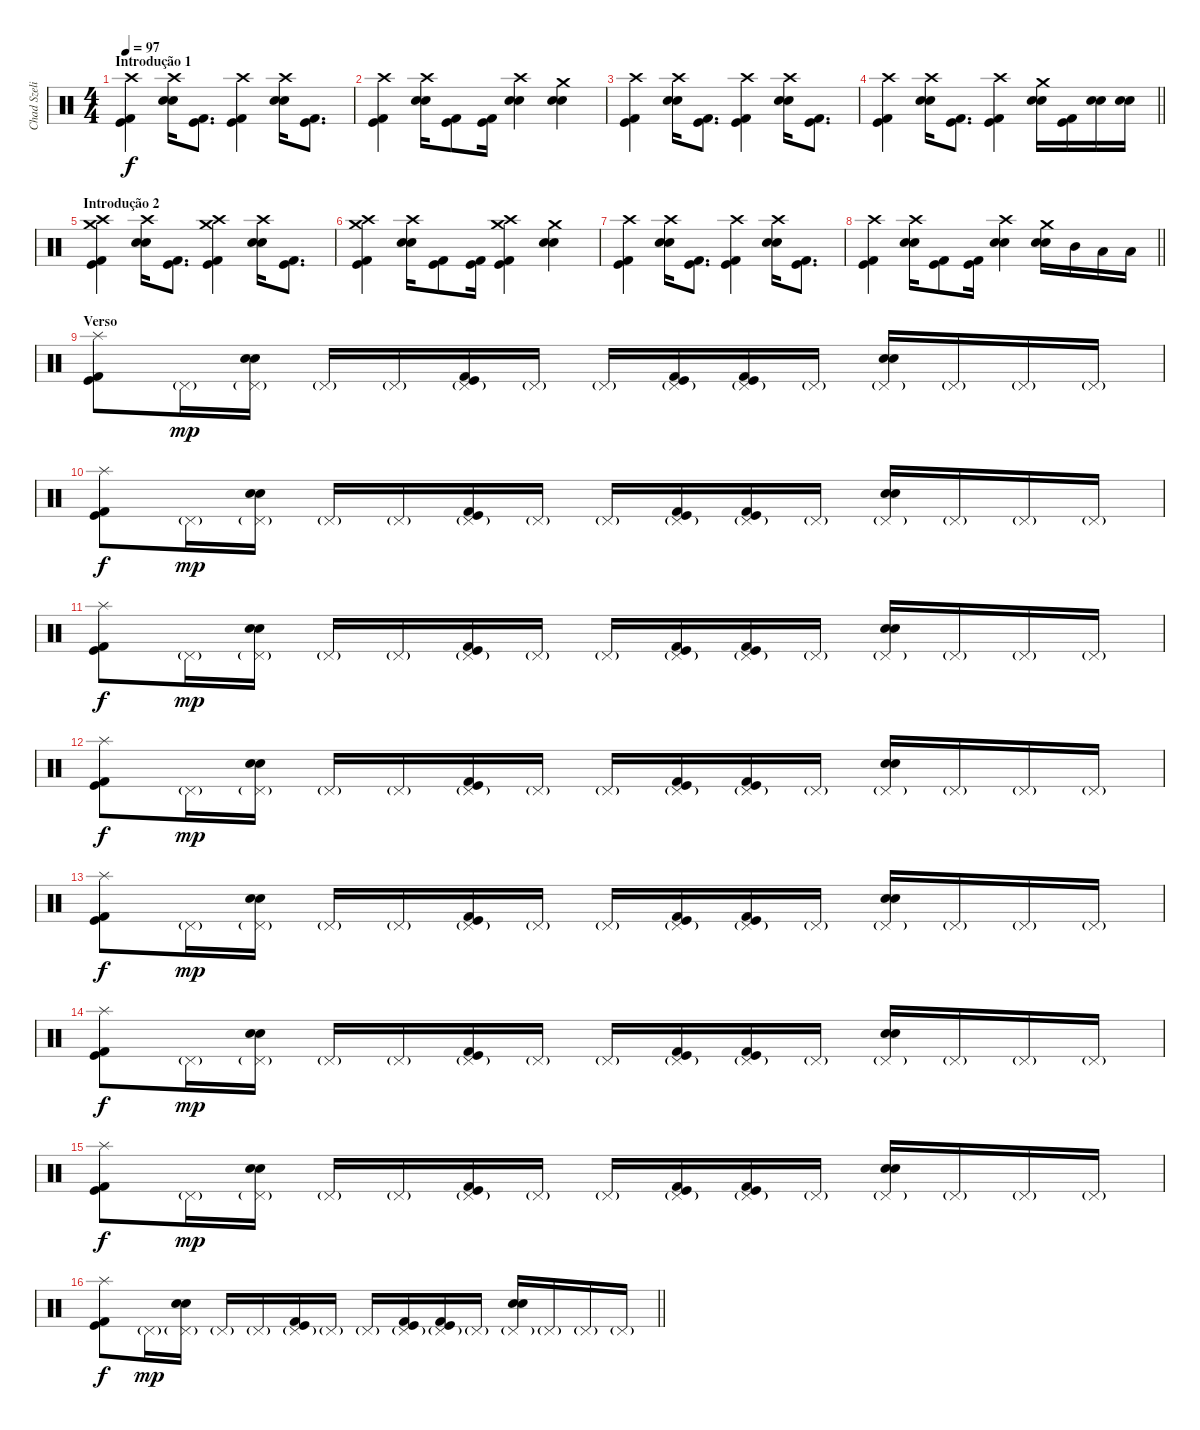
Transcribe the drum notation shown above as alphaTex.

\track ("Chad Szeliga" "Chad Szeli") {instrument percussion}
\staff {score}
\articulation defaults
\ts (4 4)
\section ("" "Introdução 1")
\tempo 97
\clef neutral
\ks c
("Crash high (hit)" "Kick (hit) 2" "Kick (hit)").4{dy f} ("Crash high (hit)" "Snare (hit) 2" "Snare (hit) 2").16 ("Kick (hit) 2" "Kick (hit)").8{d} ("Crash high (hit)" "Kick (hit) 2" "Kick (hit)").4 ("Crash high (hit)" "Snare (hit) 2" "Snare (hit) 2").16 ("Kick (hit) 2" "Kick (hit)").8{d} |
("Crash high (hit)" "Kick (hit) 2" "Kick (hit)").4 ("Crash high (hit)" "Snare (hit) 2" "Snare (hit) 2").16 ("Kick (hit) 2" "Kick (hit)").8 ("Kick (hit) 2" "Kick (hit)").16 ("Crash high (hit)" "Snare (hit) 2" "Snare (hit) 2").4 ("Crash medium (hit)" "Snare (hit) 2" "Snare (hit) 2").4 |
("Crash high (hit)" "Kick (hit) 2" "Kick (hit)").4 ("Crash high (hit)" "Snare (hit) 2" "Snare (hit) 2").16 ("Kick (hit) 2" "Kick (hit)").8{d} ("Crash high (hit)" "Kick (hit) 2" "Kick (hit)").4 ("Crash high (hit)" "Snare (hit) 2" "Snare (hit) 2").16 ("Kick (hit) 2" "Kick (hit)").8{d} |
\barLineRight lightlight
("Crash high (hit)" "Kick (hit) 2" "Kick (hit)").4 ("Crash high (hit)" "Snare (hit) 2" "Snare (hit) 2").16 ("Kick (hit) 2" "Kick (hit)").8{d} ("Crash high (hit)" "Kick (hit) 2" "Kick (hit)").4 ("Crash medium (hit)" "Snare (hit) 2" "Snare (hit) 2").16 ("Kick (hit) 2" "Kick (hit)").16 ("Snare (hit) 2" "Snare (hit) 2").16 ("Snare (hit) 2" "Snare (hit) 2").16 |
\section ("" "Introdução 2")
("Crash high (hit)" "Kick (hit) 2" "Kick (hit)" "Crash medium (hit)").4 ("Crash high (hit)" "Snare (hit) 2" "Snare (hit) 2").16 ("Kick (hit) 2" "Kick (hit)").8{d} ("Crash high (hit)" "Kick (hit) 2" "Kick (hit)" "Crash medium (hit)").4 ("Crash high (hit)" "Snare (hit) 2" "Snare (hit) 2").16 ("Kick (hit) 2" "Kick (hit)").8{d} |
("Crash high (hit)" "Kick (hit) 2" "Kick (hit)" "Crash medium (hit)").4 ("Crash high (hit)" "Snare (hit) 2" "Snare (hit) 2").16 ("Kick (hit) 2" "Kick (hit)").8 ("Kick (hit) 2" "Kick (hit)").16 ("Crash high (hit)" "Kick (hit) 2" "Kick (hit)" "Crash medium (hit)").4 ("Crash medium (hit)" "Snare (hit) 2" "Snare (hit) 2").4 |
("Crash high (hit)" "Kick (hit) 2" "Kick (hit)").4 ("Crash high (hit)" "Snare (hit) 2" "Snare (hit) 2").16 ("Kick (hit) 2" "Kick (hit)").8{d} ("Crash high (hit)" "Kick (hit) 2" "Kick (hit)").4 ("Crash high (hit)" "Snare (hit) 2" "Snare (hit) 2").16 ("Kick (hit) 2" "Kick (hit)").8{d} |
\barLineRight lightlight
("Crash high (hit)" "Kick (hit) 2" "Kick (hit)").4 ("Crash high (hit)" "Snare (hit) 2" "Snare (hit) 2").16 ("Kick (hit) 2" "Kick (hit)").8 ("Kick (hit) 2" "Kick (hit)").16 ("Crash high (hit)" "Snare (hit) 2" "Snare (hit) 2").4 ("Crash medium (hit)" "Snare (hit) 2" "Snare (hit) 2").16 "Mid Tom (hit)".16 "Low Tom (hit)".16 "Low Tom (hit)".16 |
\section ("" "Verso")
("Splash (hit)" "Kick (hit) 2" "Kick (hit)").8 "Pedal Hi-Hat (hit)"{g}.16{dy mp} ("Snare (hit) 2" "Snare (hit) 2" "Pedal Hi-Hat (hit)"{g}).16 "Pedal Hi-Hat (hit)"{g}.16 "Pedal Hi-Hat (hit)"{g}.16 ("Kick (hit) 2" "Kick (hit)" "Pedal Hi-Hat (hit)"{g}).16 "Pedal Hi-Hat (hit)"{g}.16 "Pedal Hi-Hat (hit)"{g}.16 ("Kick (hit) 2" "Kick (hit)" "Pedal Hi-Hat (hit)"{g}).16 ("Kick (hit) 2" "Kick (hit)" "Pedal Hi-Hat (hit)"{g}).16 "Pedal Hi-Hat (hit)"{g}.16 ("Snare (hit) 2" "Snare (hit) 2" "Pedal Hi-Hat (hit)"{g}).16 "Pedal Hi-Hat (hit)"{g}.16 "Pedal Hi-Hat (hit)"{g}.16 "Pedal Hi-Hat (hit)"{g}.16 |
("Splash (hit)" "Kick (hit) 2" "Kick (hit)").8{dy f} "Pedal Hi-Hat (hit)"{g}.16{dy mp} ("Snare (hit) 2" "Snare (hit) 2" "Pedal Hi-Hat (hit)"{g}).16 "Pedal Hi-Hat (hit)"{g}.16 "Pedal Hi-Hat (hit)"{g}.16 ("Kick (hit) 2" "Kick (hit)" "Pedal Hi-Hat (hit)"{g}).16 "Pedal Hi-Hat (hit)"{g}.16 "Pedal Hi-Hat (hit)"{g}.16 ("Kick (hit) 2" "Kick (hit)" "Pedal Hi-Hat (hit)"{g}).16 ("Kick (hit) 2" "Kick (hit)" "Pedal Hi-Hat (hit)"{g}).16 "Pedal Hi-Hat (hit)"{g}.16 ("Snare (hit) 2" "Snare (hit) 2" "Pedal Hi-Hat (hit)"{g}).16 "Pedal Hi-Hat (hit)"{g}.16 "Pedal Hi-Hat (hit)"{g}.16 "Pedal Hi-Hat (hit)"{g}.16 |
("Splash (hit)" "Kick (hit) 2" "Kick (hit)").8{dy f} "Pedal Hi-Hat (hit)"{g}.16{dy mp} ("Snare (hit) 2" "Snare (hit) 2" "Pedal Hi-Hat (hit)"{g}).16 "Pedal Hi-Hat (hit)"{g}.16 "Pedal Hi-Hat (hit)"{g}.16 ("Kick (hit) 2" "Kick (hit)" "Pedal Hi-Hat (hit)"{g}).16 "Pedal Hi-Hat (hit)"{g}.16 "Pedal Hi-Hat (hit)"{g}.16 ("Kick (hit) 2" "Kick (hit)" "Pedal Hi-Hat (hit)"{g}).16 ("Kick (hit) 2" "Kick (hit)" "Pedal Hi-Hat (hit)"{g}).16 "Pedal Hi-Hat (hit)"{g}.16 ("Snare (hit) 2" "Snare (hit) 2" "Pedal Hi-Hat (hit)"{g}).16 "Pedal Hi-Hat (hit)"{g}.16 "Pedal Hi-Hat (hit)"{g}.16 "Pedal Hi-Hat (hit)"{g}.16 |
("Splash (hit)" "Kick (hit) 2" "Kick (hit)").8{dy f} "Pedal Hi-Hat (hit)"{g}.16{dy mp} ("Snare (hit) 2" "Snare (hit) 2" "Pedal Hi-Hat (hit)"{g}).16 "Pedal Hi-Hat (hit)"{g}.16 "Pedal Hi-Hat (hit)"{g}.16 ("Kick (hit) 2" "Kick (hit)" "Pedal Hi-Hat (hit)"{g}).16 "Pedal Hi-Hat (hit)"{g}.16 "Pedal Hi-Hat (hit)"{g}.16 ("Kick (hit) 2" "Kick (hit)" "Pedal Hi-Hat (hit)"{g}).16 ("Kick (hit) 2" "Kick (hit)" "Pedal Hi-Hat (hit)"{g}).16 "Pedal Hi-Hat (hit)"{g}.16 ("Snare (hit) 2" "Snare (hit) 2" "Pedal Hi-Hat (hit)"{g}).16 "Pedal Hi-Hat (hit)"{g}.16 "Pedal Hi-Hat (hit)"{g}.16 "Pedal Hi-Hat (hit)"{g}.16 |
("Splash (hit)" "Kick (hit) 2" "Kick (hit)").8{dy f} "Pedal Hi-Hat (hit)"{g}.16{dy mp} ("Snare (hit) 2" "Snare (hit) 2" "Pedal Hi-Hat (hit)"{g}).16 "Pedal Hi-Hat (hit)"{g}.16 "Pedal Hi-Hat (hit)"{g}.16 ("Kick (hit) 2" "Kick (hit)" "Pedal Hi-Hat (hit)"{g}).16 "Pedal Hi-Hat (hit)"{g}.16 "Pedal Hi-Hat (hit)"{g}.16 ("Kick (hit) 2" "Kick (hit)" "Pedal Hi-Hat (hit)"{g}).16 ("Kick (hit) 2" "Kick (hit)" "Pedal Hi-Hat (hit)"{g}).16 "Pedal Hi-Hat (hit)"{g}.16 ("Snare (hit) 2" "Snare (hit) 2" "Pedal Hi-Hat (hit)"{g}).16 "Pedal Hi-Hat (hit)"{g}.16 "Pedal Hi-Hat (hit)"{g}.16 "Pedal Hi-Hat (hit)"{g}.16 |
("Splash (hit)" "Kick (hit) 2" "Kick (hit)").8{dy f} "Pedal Hi-Hat (hit)"{g}.16{dy mp} ("Snare (hit) 2" "Snare (hit) 2" "Pedal Hi-Hat (hit)"{g}).16 "Pedal Hi-Hat (hit)"{g}.16 "Pedal Hi-Hat (hit)"{g}.16 ("Kick (hit) 2" "Kick (hit)" "Pedal Hi-Hat (hit)"{g}).16 "Pedal Hi-Hat (hit)"{g}.16 "Pedal Hi-Hat (hit)"{g}.16 ("Kick (hit) 2" "Kick (hit)" "Pedal Hi-Hat (hit)"{g}).16 ("Kick (hit) 2" "Kick (hit)" "Pedal Hi-Hat (hit)"{g}).16 "Pedal Hi-Hat (hit)"{g}.16 ("Snare (hit) 2" "Snare (hit) 2" "Pedal Hi-Hat (hit)"{g}).16 "Pedal Hi-Hat (hit)"{g}.16 "Pedal Hi-Hat (hit)"{g}.16 "Pedal Hi-Hat (hit)"{g}.16 |
("Splash (hit)" "Kick (hit) 2" "Kick (hit)").8{dy f} "Pedal Hi-Hat (hit)"{g}.16{dy mp} ("Snare (hit) 2" "Snare (hit) 2" "Pedal Hi-Hat (hit)"{g}).16 "Pedal Hi-Hat (hit)"{g}.16 "Pedal Hi-Hat (hit)"{g}.16 ("Kick (hit) 2" "Kick (hit)" "Pedal Hi-Hat (hit)"{g}).16 "Pedal Hi-Hat (hit)"{g}.16 "Pedal Hi-Hat (hit)"{g}.16 ("Kick (hit) 2" "Kick (hit)" "Pedal Hi-Hat (hit)"{g}).16 ("Kick (hit) 2" "Kick (hit)" "Pedal Hi-Hat (hit)"{g}).16 "Pedal Hi-Hat (hit)"{g}.16 ("Snare (hit) 2" "Snare (hit) 2" "Pedal Hi-Hat (hit)"{g}).16 "Pedal Hi-Hat (hit)"{g}.16 "Pedal Hi-Hat (hit)"{g}.16 "Pedal Hi-Hat (hit)"{g}.16 |
\barLineRight lightlight
("Splash (hit)" "Kick (hit) 2" "Kick (hit)").8{dy f} "Pedal Hi-Hat (hit)"{g}.16{dy mp} ("Snare (hit) 2" "Snare (hit) 2" "Pedal Hi-Hat (hit)"{g}).16 "Pedal Hi-Hat (hit)"{g}.16 "Pedal Hi-Hat (hit)"{g}.16 ("Kick (hit) 2" "Kick (hit)" "Pedal Hi-Hat (hit)"{g}).16 "Pedal Hi-Hat (hit)"{g}.16 "Pedal Hi-Hat (hit)"{g}.16 ("Kick (hit) 2" "Kick (hit)" "Pedal Hi-Hat (hit)"{g}).16 ("Kick (hit) 2" "Kick (hit)" "Pedal Hi-Hat (hit)"{g}).16 "Pedal Hi-Hat (hit)"{g}.16 ("Snare (hit) 2" "Snare (hit) 2" "Pedal Hi-Hat (hit)"{g}).16 "Pedal Hi-Hat (hit)"{g}.16 "Pedal Hi-Hat (hit)"{g}.16 "Pedal Hi-Hat (hit)"{g}.16
